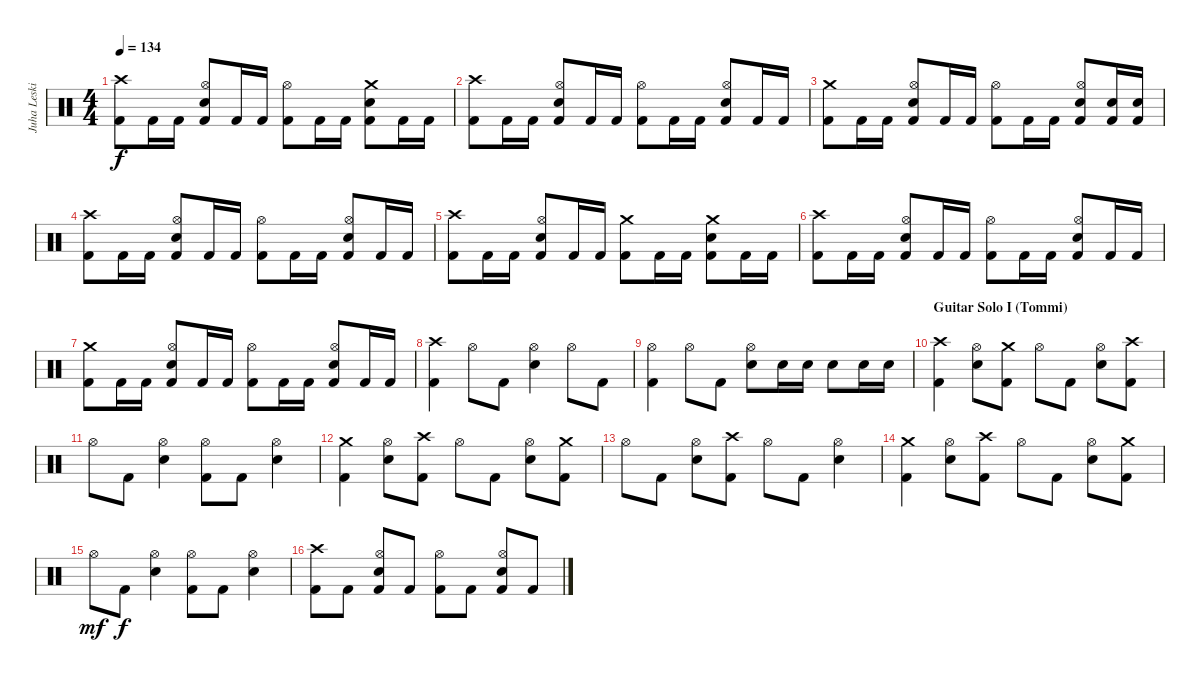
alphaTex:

\track ("Juha Leskinen - Drums" "Juha Leski") {instrument percussion}
\staff {score}
\articulation defaults
\ts (4 4)
\tempo 134
\clef neutral
\ks c
("Crash high (hit)" "Kick (hit) 2").8{dy f} "Kick (hit) 2".16 "Kick (hit) 2".16 ("Hi-Hat (open)" "Electric Snare (hit)" "Kick (hit) 2").8 "Kick (hit) 2".16 "Kick (hit) 2".16 ("Hi-Hat (open)" "Kick (hit) 2").8 "Kick (hit) 2".16 "Kick (hit) 2".16 ("Crash medium (hit)" "Electric Snare (hit)" "Kick (hit) 2").8 "Kick (hit) 2".16 "Kick (hit) 2".16 |
("Crash high (hit)" "Kick (hit) 2").8 "Kick (hit) 2".16 "Kick (hit) 2".16 ("Hi-Hat (open)" "Electric Snare (hit)" "Kick (hit) 2").8 "Kick (hit) 2".16 "Kick (hit) 2".16 ("Hi-Hat (open)" "Kick (hit) 2").8 "Kick (hit) 2".16 "Kick (hit) 2".16 ("Hi-Hat (open)" "Electric Snare (hit)" "Kick (hit) 2").8 "Kick (hit) 2".16 "Kick (hit) 2".16 |
("Crash medium (hit)" "Kick (hit) 2").8 "Kick (hit) 2".16 "Kick (hit) 2".16 ("Hi-Hat (open)" "Electric Snare (hit)" "Kick (hit) 2").8 "Kick (hit) 2".16 "Kick (hit) 2".16 ("Hi-Hat (open)" "Kick (hit) 2").8 "Kick (hit) 2".16 "Kick (hit) 2".16 ("Hi-Hat (open)" "Electric Snare (hit)" "Kick (hit) 2").8 ("Electric Snare (hit)" "Kick (hit) 2").16 ("Electric Snare (hit)" "Kick (hit) 2").16 |
("Crash high (hit)" "Kick (hit) 2").8 "Kick (hit) 2".16 "Kick (hit) 2".16 ("Hi-Hat (open)" "Electric Snare (hit)" "Kick (hit) 2").8 "Kick (hit) 2".16 "Kick (hit) 2".16 ("Hi-Hat (open)" "Kick (hit) 2").8 "Kick (hit) 2".16 "Kick (hit) 2".16 ("Hi-Hat (open)" "Electric Snare (hit)" "Kick (hit) 2").8 "Kick (hit) 2".16 "Kick (hit) 2".16 |
("Crash high (hit)" "Kick (hit) 2").8 "Kick (hit) 2".16 "Kick (hit) 2".16 ("Hi-Hat (open)" "Electric Snare (hit)" "Kick (hit) 2").8 "Kick (hit) 2".16 "Kick (hit) 2".16 ("Crash medium (hit)" "Kick (hit) 2").8 "Kick (hit) 2".16 "Kick (hit) 2".16 ("Crash medium (hit)" "Electric Snare (hit)" "Kick (hit) 2").8 "Kick (hit) 2".16 "Kick (hit) 2".16 |
("Crash high (hit)" "Kick (hit) 2").8 "Kick (hit) 2".16 "Kick (hit) 2".16 ("Hi-Hat (open)" "Electric Snare (hit)" "Kick (hit) 2").8 "Kick (hit) 2".16 "Kick (hit) 2".16 ("Hi-Hat (open)" "Kick (hit) 2").8 "Kick (hit) 2".16 "Kick (hit) 2".16 ("Hi-Hat (open)" "Electric Snare (hit)" "Kick (hit) 2").8 "Kick (hit) 2".16 "Kick (hit) 2".16 |
("Crash medium (hit)" "Kick (hit) 2").8 "Kick (hit) 2".16 "Kick (hit) 2".16 ("Hi-Hat (open)" "Electric Snare (hit)" "Kick (hit) 2").8 "Kick (hit) 2".16 "Kick (hit) 2".16 ("Hi-Hat (open)" "Kick (hit) 2").8 "Kick (hit) 2".16 "Kick (hit) 2".16 ("Hi-Hat (open)" "Electric Snare (hit)" "Kick (hit) 2").8 "Kick (hit) 2".16 "Kick (hit) 2".16 |
("Crash high (hit)" "Kick (hit) 2").4 "Hi-Hat (open)".8 "Kick (hit) 2".8 ("Hi-Hat (open)" "Electric Snare (hit)").4 "Hi-Hat (open)".8 "Kick (hit) 2".8 |
("Hi-Hat (open)" "Kick (hit) 2").4 "Hi-Hat (open)".8 "Kick (hit) 2".8 ("Hi-Hat (open)" "Electric Snare (hit)").8 "Electric Snare (hit)".16 "Electric Snare (hit)".16 "Electric Snare (hit)".8 "Electric Snare (hit)".16 "Electric Snare (hit)".16 |
\section ("" "Guitar Solo I (Tommi)")
("Crash high (hit)" "Kick (hit) 2").4 ("Hi-Hat (open)" "Electric Snare (hit)").8 ("Crash medium (hit)" "Kick (hit) 2").8 "Hi-Hat (open)".8 "Kick (hit) 2".8 ("Hi-Hat (open)" "Electric Snare (hit)").8 ("Crash high (hit)" "Kick (hit) 2").8 |
"Hi-Hat (open)".8 "Kick (hit) 2".8 ("Hi-Hat (open)" "Electric Snare (hit)").4 ("Hi-Hat (open)" "Kick (hit) 2").8 "Kick (hit) 2".8 ("Hi-Hat (open)" "Electric Snare (hit)").4 |
("Crash medium (hit)" "Kick (hit) 2").4 ("Hi-Hat (open)" "Electric Snare (hit)").8 ("Crash high (hit)" "Kick (hit) 2").8 "Hi-Hat (open)".8 "Kick (hit) 2".8 ("Hi-Hat (open)" "Electric Snare (hit)").8 ("Crash medium (hit)" "Kick (hit) 2").8 |
"Hi-Hat (open)".8 "Kick (hit) 2".8 ("Hi-Hat (open)" "Electric Snare (hit)").8 ("Crash high (hit)" "Kick (hit) 2").8 "Hi-Hat (open)".8 "Kick (hit) 2".8 ("Hi-Hat (open)" "Electric Snare (hit)").4 |
("Crash medium (hit)" "Kick (hit) 2").4 ("Hi-Hat (open)" "Electric Snare (hit)").8 ("Crash high (hit)" "Kick (hit) 2").8 "Hi-Hat (open)".8 "Kick (hit) 2".8 ("Hi-Hat (open)" "Electric Snare (hit)").8 ("Crash medium (hit)" "Kick (hit) 2").8 |
"Hi-Hat (open)".8{dy mf} "Kick (hit) 2".8{dy f} ("Hi-Hat (open)" "Electric Snare (hit)").4 ("Hi-Hat (open)" "Kick (hit) 2").8 "Kick (hit) 2".8 ("Hi-Hat (open)" "Electric Snare (hit)").4 |
("Crash high (hit)" "Kick (hit) 2").8 "Kick (hit) 2".8 ("Hi-Hat (open)" "Electric Snare (hit)" "Kick (hit) 2").8 "Kick (hit) 2".8 ("Hi-Hat (open)" "Kick (hit) 2").8 "Kick (hit) 2".8 ("Hi-Hat (open)" "Electric Snare (hit)" "Kick (hit) 2").8 "Kick (hit) 2".8
